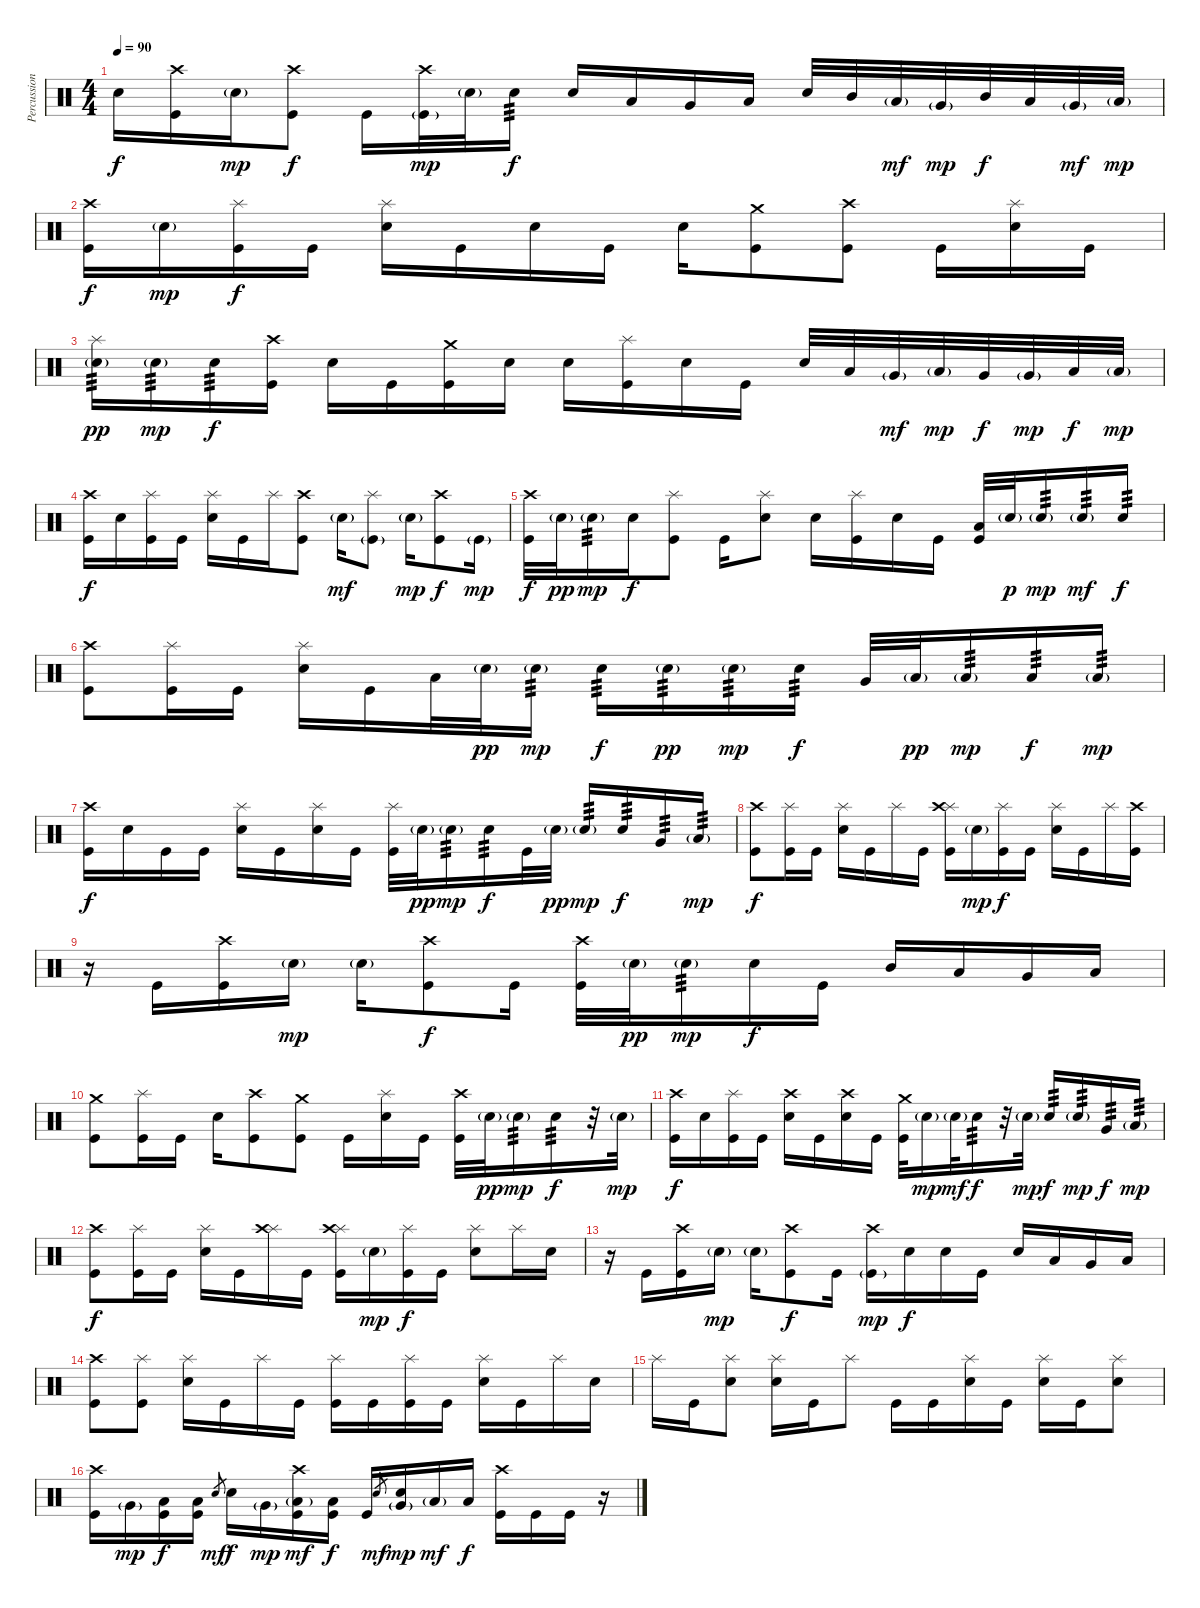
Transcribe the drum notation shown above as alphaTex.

\track ("Percussion" "Percussion") {instrument percussion}
\staff {score}
\articulation defaults
\ts (4 4)
\tempo 90
\clef neutral
\ks c "Snare (hit) 2".16{dy f}
("Crash high (hit)" "Kick (hit)").16 "Snare (hit) 2"{g}.16{dy mp} ("Crash high (hit)" "Kick (hit)").8{dy f} "Kick (hit)".16 ("Crash high (hit)" "Kick (hit)"{g}).32{dy mp} "Snare (hit) 2"{g}.32 "Snare (hit) 2".16{tp 3 dy f} "Snare (hit) 2".16 "Low Tom (hit)".16 "Very Low Tom (hit)".16 "Low Floor Tom (hit)".16 "Snare (hit) 2".32 "Mid Tom (hit)".32 "Low Tom (hit)"{g}.32{dy mf} "Very Low Tom (hit)"{g}.32{dy mp} "Mid Tom (hit)".32{dy f} "Low Tom (hit)".32 "Very Low Tom (hit)"{g}.32{dy mf} "Low Floor Tom (hit)"{g}.32{dy mp} |
("Crash high (hit)" "Kick (hit)").16{dy f} "Snare (hit) 2"{g}.16{dy mp} ("Splash (hit)" "Kick (hit)").16{dy f} "Kick (hit)".16 ("Splash (hit)" "Snare (hit) 2").16 "Kick (hit)".16 "Snare (hit) 2".16 "Kick (hit)".16 "Snare (hit) 2".16 ("Crash medium (hit)" "Kick (hit)").8 ("Crash high (hit)" "Kick (hit)").8 "Kick (hit)".16 ("Splash (hit)" "Snare (hit) 2").16 "Kick (hit)".16 |
("Splash (hit)" "Snare (hit) 2"{g}).16{tp 3 dy pp} "Snare (hit) 2"{g}.16{tp 3 dy mp} "Snare (hit) 2".16{tp 3 dy f} ("Crash high (hit)" "Kick (hit)").16 "Snare (hit) 2".16 "Kick (hit)".16 ("Crash medium (hit)" "Kick (hit)").16 "Snare (hit) 2".16 "Snare (hit) 2".16 ("Splash (hit)" "Kick (hit)").16 "Snare (hit) 2".16 "Kick (hit)".16 "Snare (hit) 2".32 "Low Tom (hit)".32 "Very Low Tom (hit)"{g}.32{dy mf} "Low Floor Tom (hit)"{g}.32{dy mp} "Very Low Tom (hit)".32{dy f} "Very Low Tom (hit)"{g}.32{dy mp} "Low Floor Tom (hit)".32{dy f} "Low Floor Tom (hit)"{g}.32{dy mp} |
("Crash high (hit)" "Kick (hit)").16{dy f} "Snare (hit) 2".16 ("Splash (hit)" "Kick (hit)").16 "Kick (hit)".16 ("Splash (hit)" "Snare (hit) 2").16 "Kick (hit)".16 "Splash (hit)".16 ("Crash high (hit)" "Kick (hit)").8 "Snare (hit) 2"{g}.16{dy mf} ("Splash (hit)" "Kick (hit)"{g}).8 "Snare (hit) 2"{g}.16{dy mp} ("Crash high (hit)" "Kick (hit)").8{dy f} "Kick (hit)"{g}.16{dy mp} |
("Crash high (hit)" "Kick (hit)").32{dy f} "Snare (hit) 2"{g}.32{dy pp} "Snare (hit) 2"{g}.16{tp 3 dy mp} "Snare (hit) 2".16{dy f} ("Splash (hit)" "Kick (hit)").8 "Kick (hit)".16 ("Splash (hit)" "Snare (hit) 2").8 "Snare (hit) 2".16 ("Splash (hit)" "Kick (hit)").16 "Snare (hit) 2".16 "Kick (hit)".16 ("Low Floor Tom (hit)" "Kick (hit)").32 "Snare (hit) 2"{g}.32{dy p} "Snare (hit) 2"{g}.16{tp 3 dy mp} "Snare (hit) 2"{g}.16{tp 3 dy mf} "Snare (hit) 2".16{tp 3 dy f} |
("Crash high (hit)" "Kick (hit)").8 ("Splash (hit)" "Kick (hit)").16 "Kick (hit)".16 ("Splash (hit)" "Snare (hit) 2").16 "Kick (hit)".16 "Low Tom (hit)".32 "Snare (hit) 2"{g}.32{dy pp} "Snare (hit) 2"{g}.16{tp 3 dy mp} "Snare (hit) 2".16{tp 3 dy f} "Snare (hit) 2"{g}.16{tp 3 dy pp} "Snare (hit) 2"{g}.16{tp 3 dy mp} "Snare (hit) 2".16{tp 3 dy f} "Very Low Tom (hit)".32 "Low Floor Tom (hit)"{g}.32{dy pp} "Low Floor Tom (hit)"{g}.16{tp 3 dy mp} "Low Floor Tom (hit)".16{tp 3 dy f} "Low Floor Tom (hit)"{g}.16{tp 3 dy mp} |
("Crash high (hit)" "Kick (hit)").16{dy f} "Snare (hit) 2".16 "Kick (hit)".16 "Kick (hit)".16 ("Splash (hit)" "Snare (hit) 2").16 "Kick (hit)".16 ("Splash (hit)" "Snare (hit) 2").16 "Kick (hit)".16 ("Splash (hit)" "Kick (hit)").32 "Snare (hit) 2"{g}.32{dy pp} "Snare (hit) 2"{g}.16{tp 3 dy mp} "Snare (hit) 2".16{tp 3 dy f} "Kick (hit)".32 "Snare (hit) 2"{g}.32{dy pp} "Snare (hit) 2"{g}.16{tp 3 dy mp} "Snare (hit) 2".16{tp 3 dy f} "Very Low Tom (hit)".16{tp 3} "Low Floor Tom (hit)"{g}.16{tp 3 dy mp} |
("Crash high (hit)" "Kick (hit)").8{dy f} ("Splash (hit)" "Kick (hit)").16 "Kick (hit)".16 ("Splash (hit)" "Snare (hit) 2").16 "Kick (hit)".16 "Splash (hit)".16 "Kick (hit)".16 ("Splash (hit)" "Crash high (hit)" "Kick (hit)").16 "Snare (hit) 2"{g}.16{dy mp} ("Splash (hit)" "Kick (hit)").16{dy f} "Kick (hit)".16 ("Splash (hit)" "Snare (hit) 2").16 "Kick (hit)".16 "Splash (hit)".16 ("Crash high (hit)" "Kick (hit)").16 |
r.16 "Kick (hit)".16 ("Crash high (hit)" "Kick (hit)").16 "Snare (hit) 2"{g}.16{dy mp} "Snare (hit) 2"{g}.16 ("Crash high (hit)" "Kick (hit)").8{dy f} "Kick (hit)".16 ("Crash high (hit)" "Kick (hit)").32 "Snare (hit) 2"{g}.32{dy pp} "Snare (hit) 2"{g}.16{tp 3 dy mp} "Snare (hit) 2".16{dy f} "Kick (hit)".16 "Mid Tom (hit)".16 "Low Tom (hit)".16 "Very Low Tom (hit)".16 "Low Floor Tom (hit)".16 |
("Crash medium (hit)" "Kick (hit)").8 ("Splash (hit)" "Kick (hit)").16 "Kick (hit)".16 "Snare (hit) 2".16 ("Crash high (hit)" "Kick (hit)").8 ("Crash medium (hit)" "Kick (hit)").8 "Kick (hit)".16 ("Splash (hit)" "Snare (hit) 2").16 "Kick (hit)".16 ("Crash high (hit)" "Kick (hit)").32 "Snare (hit) 2"{g}.32{dy pp} "Snare (hit) 2"{g}.16{tp 3 dy mp} "Snare (hit) 2".16{tp 3 dy f} r.32 "Snare (hit) 2"{g}.32{dy mp} |
("Crash high (hit)" "Kick (hit)").16{dy f} "Snare (hit) 2".16 ("Splash (hit)" "Kick (hit)").16 "Kick (hit)".16 ("Crash high (hit)" "Snare (hit) 2").16 "Kick (hit)".16 ("Crash high (hit)" "Snare (hit) 2").16 "Kick (hit)".16 ("Crash medium (hit)" "Kick (hit)").32 "Snare (hit) 2"{g}.16{dy mp} "Snare (hit) 2"{g}.32{dy mf} "Snare (hit) 2".16{tp 3 dy f} r.32 "Snare (hit) 2"{g}.32{dy mp} "Snare (hit) 2".16{tp 3 dy f} "Snare (hit) 2"{g}.16{tp 3 dy mp} "Very Low Tom (hit)".16{tp 3 dy f} "Low Floor Tom (hit)"{g}.16{tp 3 dy mp} |
("Crash high (hit)" "Kick (hit)").8{dy f} ("Splash (hit)" "Kick (hit)").16 "Kick (hit)".16 ("Splash (hit)" "Snare (hit) 2").16 "Kick (hit)".16 ("Splash (hit)" "Crash high (hit)").16 "Kick (hit)".16 ("Splash (hit)" "Crash high (hit)" "Kick (hit)").16 "Snare (hit) 2"{g}.16{dy mp} ("Splash (hit)" "Kick (hit)").16{dy f} "Kick (hit)".16 ("Splash (hit)" "Snare (hit) 2").8 "Splash (hit)".16 "Snare (hit) 2".16 |
r.16 "Kick (hit)".16 ("Crash high (hit)" "Kick (hit)").16 "Snare (hit) 2"{g}.16{dy mp} "Snare (hit) 2"{g}.16 ("Crash high (hit)" "Kick (hit)").8{dy f} "Kick (hit)".16 ("Crash high (hit)" "Kick (hit)"{g}).16{dy mp} "Snare (hit) 2".16{dy f} "Snare (hit) 2".16 "Kick (hit)".16 "Snare (hit) 2".16 "Low Tom (hit)".16 "Very Low Tom (hit)".16 "Low Floor Tom (hit)".16 |
("Crash high (hit)" "Kick (hit)").8 ("Splash (hit)" "Kick (hit)").8 ("Splash (hit)" "Snare (hit) 2").16 "Kick (hit)".16 "Splash (hit)".16 "Kick (hit)".16 ("Splash (hit)" "Kick (hit)").16 "Kick (hit)".16 ("Splash (hit)" "Kick (hit)").16 "Kick (hit)".16 ("Splash (hit)" "Snare (hit) 2").16 "Kick (hit)".16 "Splash (hit)".16 "Snare (hit) 2".16 |
"Splash (hit)".16 "Kick (hit)".16 ("Splash (hit)" "Snare (hit) 2").8 ("Splash (hit)" "Snare (hit) 2").16 "Kick (hit)".16 "Splash (hit)".8 "Kick (hit)".16 "Kick (hit)".16 ("Splash (hit)" "Snare (hit) 2").16 "Kick (hit)".16 ("Splash (hit)" "Snare (hit) 2").16 "Kick (hit)".16 ("Splash (hit)" "Snare (hit) 2").8 |
("Crash high (hit)" "Kick (hit)").16 "Very Low Tom (hit)"{g}.16{dy mp} ("Low Floor Tom (hit)" "Kick (hit)").16{dy f} ("Low Floor Tom (hit)" "Kick (hit)").16 "Snare (hit) 2".8{gr dy mf} "Snare (hit) 2".16{dy f} "Very Low Tom (hit)"{g}.16{dy mp} ("Crash high (hit)" "Low Floor Tom (hit)"{g} "Kick (hit)").16{dy mf} ("Low Floor Tom (hit)" "Kick (hit)").16{dy f} "Kick (hit)".16 "Snare (hit) 2".8{gr dy mf} ("Snare (hit) 2" "Very Low Tom (hit)"{g}).16{dy mp} "Low Floor Tom (hit)"{g}.16{dy mf} "Low Floor Tom (hit)".16{dy f} ("Crash high (hit)" "Kick (hit)").16 "Kick (hit)".16 "Kick (hit)".16 r.16
